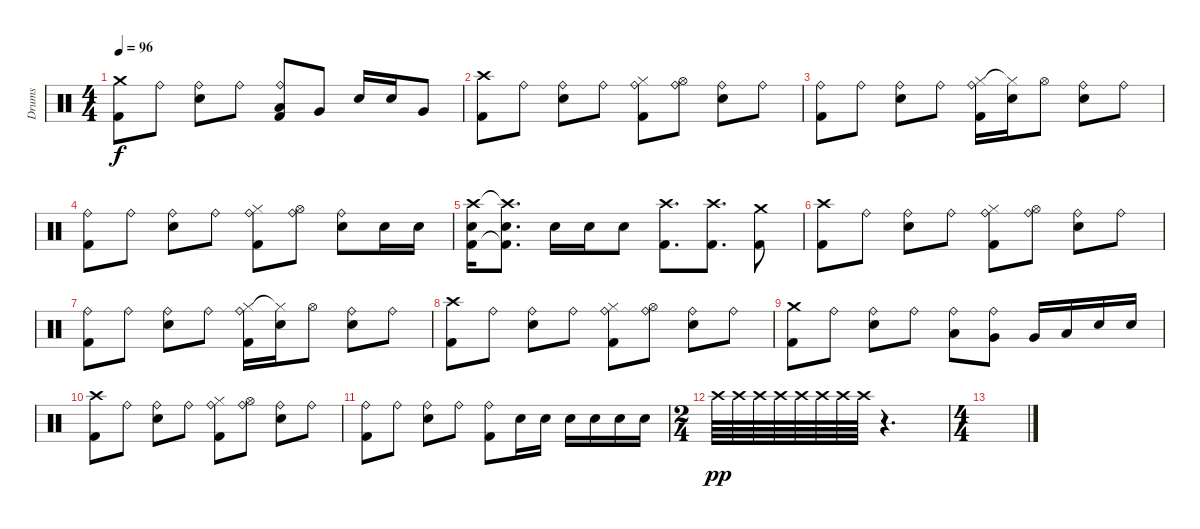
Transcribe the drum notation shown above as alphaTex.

\track ("Drums" "Drums") {instrument percussion}
\staff {score}
\articulation defaults
\ts (4 4)
\tempo 96
\clef neutral
\ks c
("Crash medium (hit)" "Kick (hit) 2").8{dy f} "Ride (bell)".8 ("Ride (bell)" "Electric Snare (hit)").8 "Ride (bell)".8 ("Ride (bell)" "Low Tom (hit)" "Kick (hit) 2").8 "Very Low Tom (hit)".8 "Electric Snare (hit)".16 "Electric Snare (hit)".16 "Very Low Tom (hit)".8 |
("Crash high (hit)" "Kick (hit) 2").8 "Ride (bell)".8 ("Ride (bell)" "Electric Snare (hit)").8 "Ride (bell)".8 ("Ride (bell)" "Hi-Hat (closed)" "Kick (hit) 2").8 ("Ride (bell)" "Hi-Hat (open)").8 ("Ride (bell)" "Electric Snare (hit)").8 "Ride (bell)".8 |
("Ride (bell)" "Kick (hit) 2").8 "Ride (bell)".8 ("Ride (bell)" "Electric Snare (hit)").8 "Ride (bell)".8 ("Ride (bell)" "Hi-Hat (closed)" "Kick (hit) 2").16 ("Hi-Hat (closed)"{t} "Electric Snare (hit)").16 "Hi-Hat (open)".8 ("Ride (bell)" "Electric Snare (hit)").8 "Ride (bell)".8 |
("Ride (bell)" "Kick (hit) 2").8 "Ride (bell)".8 ("Ride (bell)" "Electric Snare (hit)").8 "Ride (bell)".8 ("Ride (bell)" "Hi-Hat (closed)" "Kick (hit) 2").8 ("Ride (bell)" "Hi-Hat (open)").8 ("Ride (bell)" "Electric Snare (hit)").8 "Electric Snare (hit)".16 "Electric Snare (hit)".16 |
("Crash high (hit)" "Electric Snare (hit)" "Kick (hit) 2").16 ("Crash high (hit)"{t} "Electric Snare (hit)" "Kick (hit) 2"{t}).8{d} "Electric Snare (hit)".16 "Electric Snare (hit)".16 "Electric Snare (hit)".8 ("Crash high (hit)" "Kick (hit) 2").8{d} ("Crash high (hit)" "Kick (hit) 2").8{d} ("Crash medium (hit)" "Kick (hit) 2").8 |
("Crash high (hit)" "Kick (hit) 2").8 "Ride (bell)".8 ("Ride (bell)" "Electric Snare (hit)").8 "Ride (bell)".8 ("Ride (bell)" "Hi-Hat (closed)" "Kick (hit) 2").8 ("Ride (bell)" "Hi-Hat (open)").8 ("Ride (bell)" "Electric Snare (hit)").8 "Ride (bell)".8 |
("Ride (bell)" "Kick (hit) 2").8 "Ride (bell)".8 ("Ride (bell)" "Electric Snare (hit)").8 "Ride (bell)".8 ("Ride (bell)" "Hi-Hat (closed)" "Kick (hit) 2").16 ("Hi-Hat (closed)"{t} "Electric Snare (hit)").16 "Hi-Hat (open)".8 ("Ride (bell)" "Electric Snare (hit)").8 "Ride (bell)".8 |
("Crash high (hit)" "Kick (hit) 2").8 "Ride (bell)".8 ("Ride (bell)" "Electric Snare (hit)").8 "Ride (bell)".8 ("Ride (bell)" "Hi-Hat (closed)" "Kick (hit) 2").8 ("Ride (bell)" "Hi-Hat (open)").8 ("Ride (bell)" "Electric Snare (hit)").8 "Ride (bell)".8 |
("Crash medium (hit)" "Kick (hit) 2").8 "Ride (bell)".8 ("Ride (bell)" "Electric Snare (hit)").8 "Ride (bell)".8 ("Ride (bell)" "Low Tom (hit)").8 ("Ride (bell)" "Very Low Tom (hit)").8 "Very Low Tom (hit)".16 "Low Tom (hit)".16 "Electric Snare (hit)".16 "Electric Snare (hit)".16 |
("Crash high (hit)" "Kick (hit) 2").8 "Ride (bell)".8 ("Ride (bell)" "Electric Snare (hit)").8 "Ride (bell)".8 ("Ride (bell)" "Hi-Hat (closed)" "Kick (hit) 2").8 ("Ride (bell)" "Hi-Hat (open)").8 ("Ride (bell)" "Electric Snare (hit)").8 "Ride (bell)".8 |
("Ride (bell)" "Kick (hit) 2").8 "Ride (bell)".8 ("Ride (bell)" "Electric Snare (hit)").8 "Ride (bell)".8 ("Ride (bell)" "Kick (hit) 2").8 "Electric Snare (hit)".16 "Electric Snare (hit)".16 "Electric Snare (hit)".16 "Electric Snare (hit)".16 "Electric Snare (hit)".16 "Electric Snare (hit)".16 |
\ts (2 4)
"Crash high (hit)".64{dy pp} "Crash high (hit)".64 "Crash high (hit)".64 "Crash high (hit)".64 "Crash high (hit)".64 "Crash high (hit)".64 "Crash high (hit)".64 "Crash high (hit)".64 r.4{d} |
\ts (4 4)
